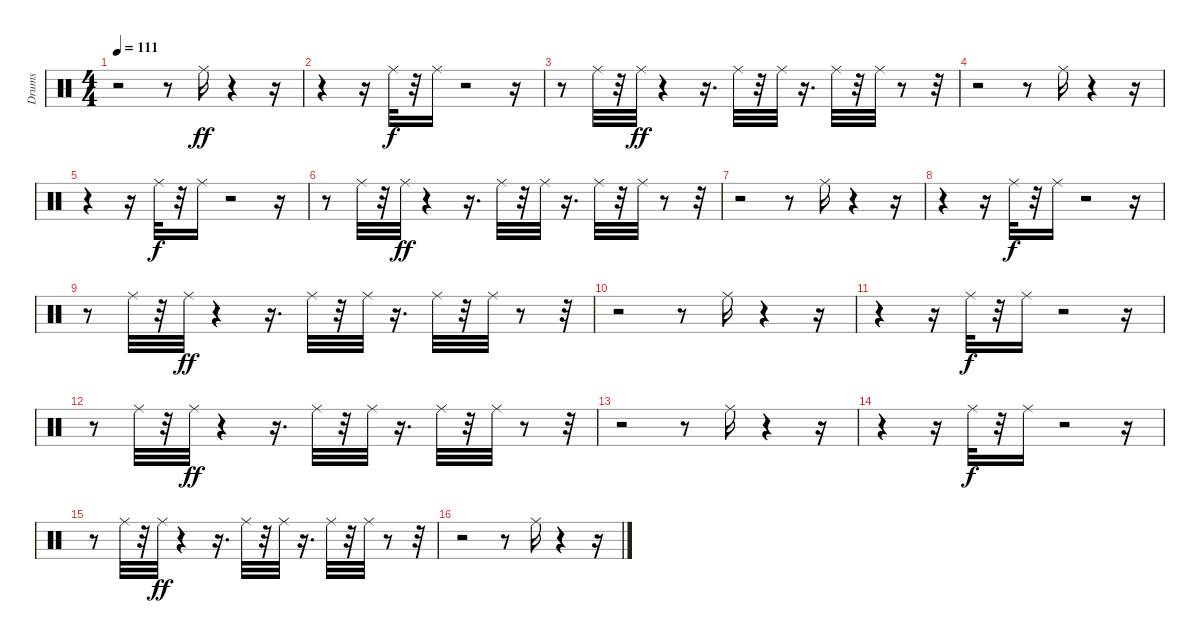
\track ("Drums" "Drums") {instrument percussion}
\staff {score}
\articulation defaults
\ts (4 4)
\tempo 111
\clef neutral
\ks c
r.2{dy ff} r.8 "Ride (middle)".16 r.4 r.16 |
r.4 r.16 "Ride (middle)".32{dy f} r.32 "Ride (middle)".16 r.2 r.16 |
r.8 "Ride (middle)".32 r.32 "Ride (middle)".32{dy ff} r.4 r.16{d} "Ride (middle)".32 r.32 "Ride (middle)".32 r.16{d} "Ride (middle)".32 r.32 "Ride (middle)".32 r.8 r.32 |
r.2 r.8 "Ride (middle)".16 r.4 r.16 |
r.4 r.16 "Ride (middle)".32{dy f} r.32 "Ride (middle)".16 r.2 r.16 |
r.8 "Ride (middle)".32 r.32 "Ride (middle)".32{dy ff} r.4 r.16{d} "Ride (middle)".32 r.32 "Ride (middle)".32 r.16{d} "Ride (middle)".32 r.32 "Ride (middle)".32 r.8 r.32 |
r.2 r.8 "Ride (middle)".16 r.4 r.16 |
r.4 r.16 "Ride (middle)".32{dy f} r.32 "Ride (middle)".16 r.2 r.16 |
r.8 "Ride (middle)".32 r.32 "Ride (middle)".32{dy ff} r.4 r.16{d} "Ride (middle)".32 r.32 "Ride (middle)".32 r.16{d} "Ride (middle)".32 r.32 "Ride (middle)".32 r.8 r.32 |
r.2 r.8 "Ride (middle)".16 r.4 r.16 |
r.4 r.16 "Ride (middle)".32{dy f} r.32 "Ride (middle)".16 r.2 r.16 |
r.8 "Ride (middle)".32 r.32 "Ride (middle)".32{dy ff} r.4 r.16{d} "Ride (middle)".32 r.32 "Ride (middle)".32 r.16{d} "Ride (middle)".32 r.32 "Ride (middle)".32 r.8 r.32 |
r.2 r.8 "Ride (middle)".16 r.4 r.16 |
r.4 r.16 "Ride (middle)".32{dy f} r.32 "Ride (middle)".16 r.2 r.16 |
r.8 "Ride (middle)".32 r.32 "Ride (middle)".32{dy ff} r.4 r.16{d} "Ride (middle)".32 r.32 "Ride (middle)".32 r.16{d} "Ride (middle)".32 r.32 "Ride (middle)".32 r.8 r.32 |
r.2 r.8 "Ride (middle)".16 r.4 r.16
